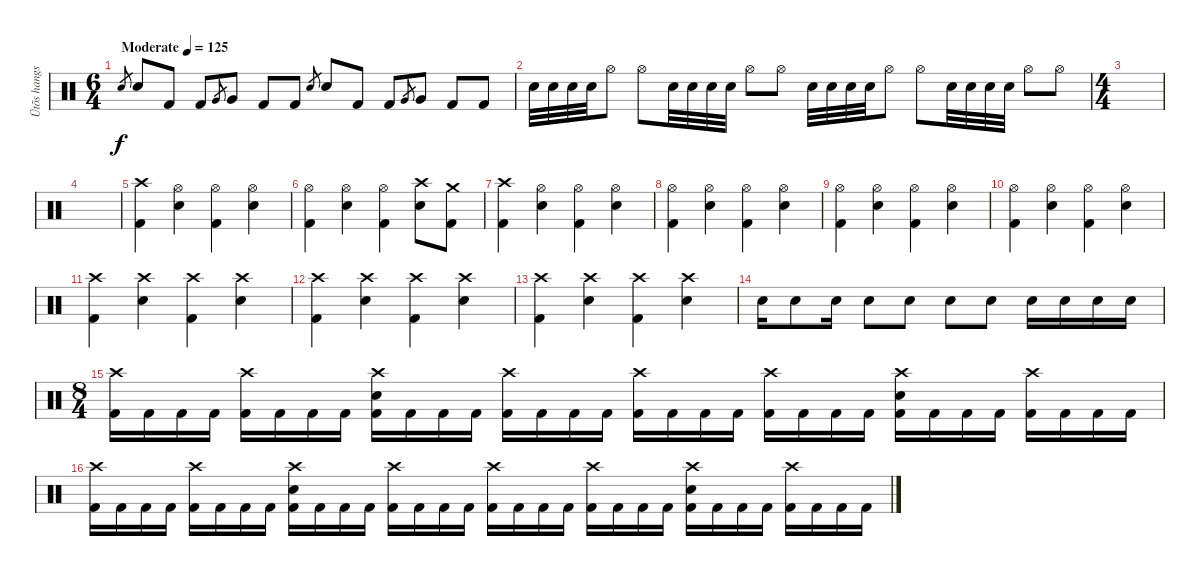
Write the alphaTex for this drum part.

\track ("Ütõs hangszer" "Ütõs hangs") {instrument percussion}
\staff {score}
\articulation defaults
\ts (6 4)
\tempo (125 "Moderate")
\clef neutral
\ks c "Electric Snare (hit)".8{gr dy f} "Electric Snare (hit)".8 "Kick (hit) 2".8 "Kick (hit) 2".8 "Very Low Tom (hit)".8{gr} "Very Low Tom (hit)".8 "Kick (hit) 2".8 "Kick (hit) 2".8 "Electric Snare (hit)".8{gr} "Electric Snare (hit)".8 "Kick (hit) 2".8 "Kick (hit) 2".8 "Very Low Tom (hit)".8{gr} "Very Low Tom (hit)".8 "Kick (hit) 2".8 "Kick (hit) 2".8
|
"Electric Snare (hit)".32 "Electric Snare (hit)".32 "Electric Snare (hit)".32 "Electric Snare (hit)".32 "Hi-Hat (open)".8 "Hi-Hat (open)".8 "Electric Snare (hit)".32 "Electric Snare (hit)".32 "Electric Snare (hit)".32 "Electric Snare (hit)".32 "Hi-Hat (open)".8 "Hi-Hat (open)".8 "Electric Snare (hit)".32 "Electric Snare (hit)".32 "Electric Snare (hit)".32 "Electric Snare (hit)".32 "Hi-Hat (open)".8 "Hi-Hat (open)".8 "Electric Snare (hit)".32 "Electric Snare (hit)".32 "Electric Snare (hit)".32 "Electric Snare (hit)".32 "Hi-Hat (open)".8 "Hi-Hat (open)".8 |
\ts (4 4)
|
|
("Crash high (hit)" "Kick (hit) 2").4 ("Hi-Hat (open)" "Electric Snare (hit)").4 ("Hi-Hat (open)" "Kick (hit) 2").4 ("Hi-Hat (open)" "Electric Snare (hit)").4 |
("Hi-Hat (open)" "Kick (hit) 2").4 ("Hi-Hat (open)" "Electric Snare (hit)").4 ("Hi-Hat (open)" "Kick (hit) 2").4 ("Crash high (hit)" "Electric Snare (hit)").8 ("Crash medium (hit)" "Kick (hit) 2").8 |
("Crash high (hit)" "Kick (hit) 2").4 ("Hi-Hat (open)" "Electric Snare (hit)").4 ("Hi-Hat (open)" "Kick (hit) 2").4 ("Hi-Hat (open)" "Electric Snare (hit)").4 |
("Hi-Hat (open)" "Kick (hit) 2").4 ("Hi-Hat (open)" "Electric Snare (hit)").4 ("Hi-Hat (open)" "Kick (hit) 2").4 ("Hi-Hat (open)" "Electric Snare (hit)").4 |
("Hi-Hat (open)" "Kick (hit) 2").4 ("Hi-Hat (open)" "Electric Snare (hit)").4 ("Hi-Hat (open)" "Kick (hit) 2").4 ("Hi-Hat (open)" "Electric Snare (hit)").4 |
("Hi-Hat (open)" "Kick (hit) 2").4 ("Hi-Hat (open)" "Electric Snare (hit)").4 ("Hi-Hat (open)" "Kick (hit) 2").4 ("Hi-Hat (open)" "Electric Snare (hit)").4 |
("Crash high (hit)" "Kick (hit) 2").4 ("Crash high (hit)" "Electric Snare (hit)").4 ("Crash high (hit)" "Kick (hit) 2").4 ("Crash high (hit)" "Electric Snare (hit)").4 |
("Crash high (hit)" "Kick (hit) 2").4 ("Crash high (hit)" "Electric Snare (hit)").4 ("Crash high (hit)" "Kick (hit) 2").4 ("Crash high (hit)" "Electric Snare (hit)").4 |
("Crash high (hit)" "Kick (hit) 2").4 ("Crash high (hit)" "Electric Snare (hit)").4 ("Crash high (hit)" "Kick (hit) 2").4 ("Crash high (hit)" "Electric Snare (hit)").4 |
"Electric Snare (hit)".16 "Electric Snare (hit)".8 "Electric Snare (hit)".16 "Electric Snare (hit)".8 "Electric Snare (hit)".8 "Electric Snare (hit)".8 "Electric Snare (hit)".8 "Electric Snare (hit)".16 "Electric Snare (hit)".16 "Electric Snare (hit)".16 "Electric Snare (hit)".16 |
\ts (8 4)
("Crash high (hit)" "Kick (hit) 2").16 "Kick (hit) 2".16 "Kick (hit) 2".16 "Kick (hit) 2".16 ("Crash high (hit)" "Kick (hit) 2").16 "Kick (hit) 2".16 "Kick (hit) 2".16 "Kick (hit) 2".16 ("Crash high (hit)" "Electric Snare (hit)" "Kick (hit) 2").16 "Kick (hit) 2".16 "Kick (hit) 2".16 "Kick (hit) 2".16 ("Crash high (hit)" "Kick (hit) 2").16 "Kick (hit) 2".16 "Kick (hit) 2".16 "Kick (hit) 2".16 ("Crash high (hit)" "Kick (hit) 2").16 "Kick (hit) 2".16 "Kick (hit) 2".16 "Kick (hit) 2".16 ("Crash high (hit)" "Kick (hit) 2").16 "Kick (hit) 2".16 "Kick (hit) 2".16 "Kick (hit) 2".16 ("Crash high (hit)" "Electric Snare (hit)" "Kick (hit) 2").16 "Kick (hit) 2".16 "Kick (hit) 2".16 "Kick (hit) 2".16 ("Crash high (hit)" "Kick (hit) 2").16 "Kick (hit) 2".16 "Kick (hit) 2".16 "Kick (hit) 2".16 |
("Crash high (hit)" "Kick (hit) 2").16 "Kick (hit) 2".16 "Kick (hit) 2".16 "Kick (hit) 2".16 ("Crash high (hit)" "Kick (hit) 2").16 "Kick (hit) 2".16 "Kick (hit) 2".16 "Kick (hit) 2".16 ("Crash high (hit)" "Electric Snare (hit)" "Kick (hit) 2").16 "Kick (hit) 2".16 "Kick (hit) 2".16 "Kick (hit) 2".16 ("Crash high (hit)" "Kick (hit) 2").16 "Kick (hit) 2".16 "Kick (hit) 2".16 "Kick (hit) 2".16 ("Crash high (hit)" "Kick (hit) 2").16 "Kick (hit) 2".16 "Kick (hit) 2".16 "Kick (hit) 2".16 ("Crash high (hit)" "Kick (hit) 2").16 "Kick (hit) 2".16 "Kick (hit) 2".16 "Kick (hit) 2".16 ("Crash high (hit)" "Electric Snare (hit)" "Kick (hit) 2").16 "Kick (hit) 2".16 "Kick (hit) 2".16 "Kick (hit) 2".16 ("Crash high (hit)" "Kick (hit) 2").16 "Kick (hit) 2".16 "Kick (hit) 2".16 "Kick (hit) 2".16
